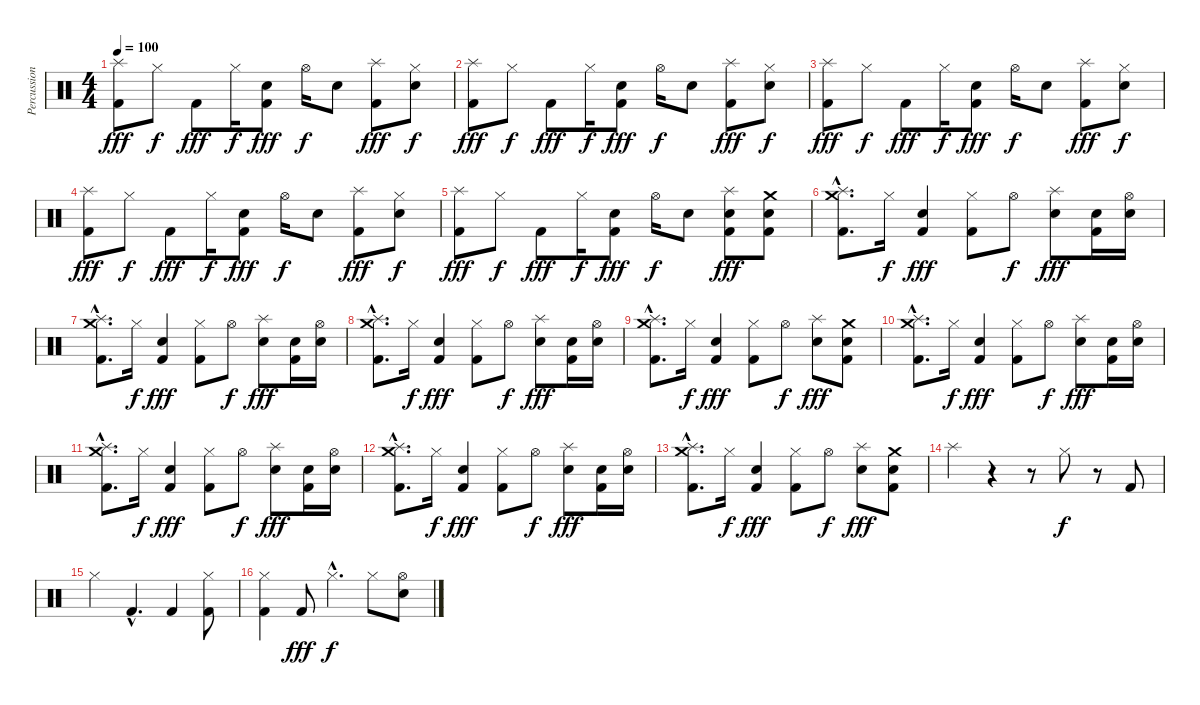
\track ("Percussion" "Percussion") {instrument percussion}
\staff {score}
\articulation defaults
\ts (4 4)
\tempo 100
\clef neutral
\ks c
("Splash (hit)" "Kick (hit) 2").8{dy fff} "Hi-Hat (closed)".8{dy f} "Kick (hit) 2".8{dy fff} "Hi-Hat (closed)".16{dy f} ("Electric Snare (hit)" "Kick (hit) 2").8{dy fff} "Hi-Hat (open)".16{dy f} "Electric Snare (hit)".8 ("Splash (hit)" "Kick (hit) 2").8{dy fff} ("Hi-Hat (closed)" "Electric Snare (hit)").8{dy f} |
("Splash (hit)" "Kick (hit) 2").8{dy fff} "Hi-Hat (closed)".8{dy f} "Kick (hit) 2".8{dy fff} "Hi-Hat (closed)".16{dy f} ("Electric Snare (hit)" "Kick (hit) 2").8{dy fff} "Hi-Hat (open)".16{dy f} "Electric Snare (hit)".8 ("Splash (hit)" "Kick (hit) 2").8{dy fff} ("Hi-Hat (closed)" "Electric Snare (hit)").8{dy f} |
("Splash (hit)" "Kick (hit) 2").8{dy fff} "Hi-Hat (closed)".8{dy f} "Kick (hit) 2".8{dy fff} "Hi-Hat (closed)".16{dy f} ("Electric Snare (hit)" "Kick (hit) 2").8{dy fff} "Hi-Hat (open)".16{dy f} "Electric Snare (hit)".8 ("Splash (hit)" "Kick (hit) 2").8{dy fff} ("Hi-Hat (closed)" "Electric Snare (hit)").8{dy f} |
("Splash (hit)" "Kick (hit) 2").8{dy fff} "Hi-Hat (closed)".8{dy f} "Kick (hit) 2".8{dy fff} "Hi-Hat (closed)".16{dy f} ("Electric Snare (hit)" "Kick (hit) 2").8{dy fff} "Hi-Hat (open)".16{dy f} "Electric Snare (hit)".8 ("Splash (hit)" "Kick (hit) 2").8{dy fff} ("Hi-Hat (closed)" "Electric Snare (hit)").8{dy f} |
("Splash (hit)" "Kick (hit) 2").8{dy fff} "Hi-Hat (closed)".8{dy f} "Kick (hit) 2".8{dy fff} "Hi-Hat (closed)".16{dy f} ("Electric Snare (hit)" "Kick (hit) 2").8{dy fff} "Hi-Hat (open)".16{dy f} "Electric Snare (hit)".8 ("Splash (hit)" "Electric Snare (hit)" "Kick (hit) 2").8{dy fff} ("Crash medium (hit)" "Electric Snare (hit)" "Kick (hit) 2").8 |
("Splash (hit)"{hac} "Crash medium (hit)"{hac} "Kick (hit) 2"{hac}).8{d} "Hi-Hat (closed)".16{dy f} ("Electric Snare (hit)" "Kick (hit) 2").4{dy fff} ("Hi-Hat (closed)" "Kick (hit) 2").8 "Hi-Hat (open)".8{dy f} ("Splash (hit)" "Electric Snare (hit)").8{dy fff} ("Electric Snare (hit)" "Kick (hit) 2").16 ("Hi-Hat (open)" "Electric Snare (hit)").16 |
("Splash (hit)"{hac} "Crash medium (hit)"{hac} "Kick (hit) 2"{hac}).8{d} "Hi-Hat (closed)".16{dy f} ("Electric Snare (hit)" "Kick (hit) 2").4{dy fff} ("Hi-Hat (closed)" "Kick (hit) 2").8 "Hi-Hat (open)".8{dy f} ("Splash (hit)" "Electric Snare (hit)").8{dy fff} ("Electric Snare (hit)" "Kick (hit) 2").16 ("Hi-Hat (open)" "Electric Snare (hit)").16 |
("Splash (hit)"{hac} "Crash medium (hit)"{hac} "Kick (hit) 2"{hac}).8{d} "Hi-Hat (closed)".16{dy f} ("Electric Snare (hit)" "Kick (hit) 2").4{dy fff} ("Hi-Hat (closed)" "Kick (hit) 2").8 "Hi-Hat (open)".8{dy f} ("Splash (hit)" "Electric Snare (hit)").8{dy fff} ("Electric Snare (hit)" "Kick (hit) 2").16 ("Hi-Hat (open)" "Electric Snare (hit)").16 |
("Splash (hit)"{hac} "Crash medium (hit)"{hac} "Kick (hit) 2"{hac}).8{d} "Hi-Hat (closed)".16{dy f} ("Electric Snare (hit)" "Kick (hit) 2").4{dy fff} ("Hi-Hat (closed)" "Kick (hit) 2").8 "Hi-Hat (open)".8{dy f} ("Splash (hit)" "Electric Snare (hit)").8{dy fff} ("Crash medium (hit)" "Electric Snare (hit)" "Kick (hit) 2").8 |
("Splash (hit)"{hac} "Crash medium (hit)"{hac} "Kick (hit) 2"{hac}).8{d} "Hi-Hat (closed)".16{dy f} ("Electric Snare (hit)" "Kick (hit) 2").4{dy fff} ("Hi-Hat (closed)" "Kick (hit) 2").8 "Hi-Hat (open)".8{dy f} ("Splash (hit)" "Electric Snare (hit)").8{dy fff} ("Electric Snare (hit)" "Kick (hit) 2").16 ("Hi-Hat (open)" "Electric Snare (hit)").16 |
("Splash (hit)"{hac} "Crash medium (hit)"{hac} "Kick (hit) 2"{hac}).8{d} "Hi-Hat (closed)".16{dy f} ("Electric Snare (hit)" "Kick (hit) 2").4{dy fff} ("Hi-Hat (closed)" "Kick (hit) 2").8 "Hi-Hat (open)".8{dy f} ("Splash (hit)" "Electric Snare (hit)").8{dy fff} ("Electric Snare (hit)" "Kick (hit) 2").16 ("Hi-Hat (open)" "Electric Snare (hit)").16 |
("Splash (hit)"{hac} "Crash medium (hit)"{hac} "Kick (hit) 2"{hac}).8{d} "Hi-Hat (closed)".16{dy f} ("Electric Snare (hit)" "Kick (hit) 2").4{dy fff} ("Hi-Hat (closed)" "Kick (hit) 2").8 "Hi-Hat (open)".8{dy f} ("Splash (hit)" "Electric Snare (hit)").8{dy fff} ("Electric Snare (hit)" "Kick (hit) 2").16 ("Hi-Hat (open)" "Electric Snare (hit)").16 |
("Splash (hit)"{hac} "Crash medium (hit)"{hac} "Kick (hit) 2"{hac}).8{d} "Hi-Hat (closed)".16{dy f} ("Electric Snare (hit)" "Kick (hit) 2").4{dy fff} ("Hi-Hat (closed)" "Kick (hit) 2").8 "Hi-Hat (open)".8{dy f} ("Splash (hit)" "Electric Snare (hit)").8{dy fff} ("Crash medium (hit)" "Electric Snare (hit)" "Kick (hit) 2").8 |
"Splash (hit)".4 r.4 r.8 "Hi-Hat (closed)".8{dy f} r.8 "Kick (hit) 2".8 |
"Hi-Hat (closed)".4 "Kick (hit) 2"{hac}.4{d} "Kick (hit) 2".4 ("Hi-Hat (closed)" "Kick (hit) 2").8 |
("Hi-Hat (closed)" "Kick (hit) 2").4 "Kick (hit) 2".8{dy fff} "Hi-Hat (closed)"{hac}.4{d dy f} "Hi-Hat (closed)".8 ("Hi-Hat (open)" "Electric Snare (hit)").8
